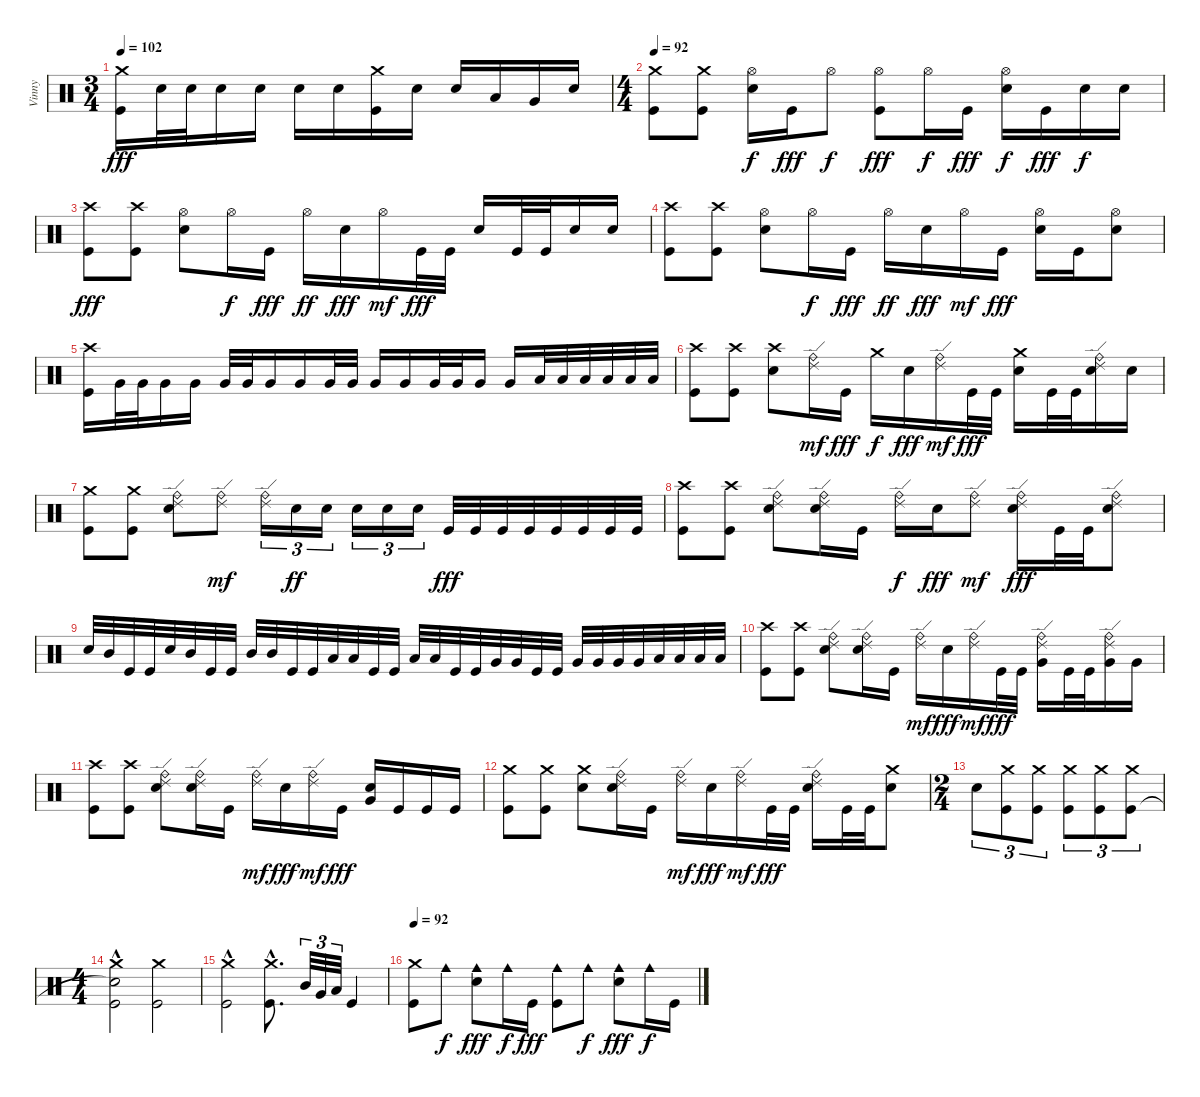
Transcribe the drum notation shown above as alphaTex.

\track ("Vinny" "Vinny") {instrument percussion}
\staff {score}
\articulation defaults
\ts (3 4)
\tempo 102
\clef neutral
\ks c
("Crash medium (hit)" "Kick (hit)").16{dy fff} "Electric Snare (hit)".32 "Electric Snare (hit)".32 "Electric Snare (hit)".16 "Electric Snare (hit)".16 "Electric Snare (hit)".16 "Electric Snare (hit)".16 ("Crash medium (hit)" "Kick (hit)").16 "Electric Snare (hit)".16 "Electric Snare (hit)".16 "Low Tom (hit)".16 "Very Low Tom (hit)".16 "Electric Snare (hit)".16 |
\ts (4 4)
\section ("" "")
\tempo 92
("Crash medium (hit)" "Kick (hit)").8 ("Crash medium (hit)" "Kick (hit)").8 ("Hi-Hat (open)" "Electric Snare (hit)").16{dy f} "Kick (hit)".16{dy fff} "Hi-Hat (open)".8{dy f} ("Hi-Hat (open)" "Kick (hit)").8{dy fff} "Hi-Hat (open)".16{dy f} "Kick (hit)".16{dy fff} ("Hi-Hat (open)" "Electric Snare (hit)").16{dy f} "Kick (hit)".16{dy fff} "Electric Snare (hit)".16{dy f} "Electric Snare (hit)".16 |
("Crash high (hit)" "Kick (hit)").8{dy fff} ("Crash high (hit)" "Kick (hit)").8 ("Hi-Hat (open)" "Electric Snare (hit)").8 "Hi-Hat (open)".16{dy f} "Kick (hit)".16{dy fff} "Hi-Hat (open)".16{dy ff} "Electric Snare (hit)".16{dy fff} "Hi-Hat (open)".16{dy mf} "Kick (hit)".32{dy fff} "Kick (hit)".32 "Electric Snare (hit)".16 "Kick (hit)".32 "Kick (hit)".32 "Electric Snare (hit)".16 "Electric Snare (hit)".16 |
("Crash high (hit)" "Kick (hit)").8 ("Crash high (hit)" "Kick (hit)").8 ("Hi-Hat (open)" "Electric Snare (hit)").8 "Hi-Hat (open)".16{dy f} "Kick (hit)".16{dy fff} "Hi-Hat (open)".16{dy ff} "Electric Snare (hit)".16{dy fff} "Hi-Hat (open)".16{dy mf} "Kick (hit)".16{dy fff} ("Hi-Hat (open)" "Electric Snare (hit)").16 "Kick (hit)".16 ("Hi-Hat (open)" "Electric Snare (hit)").8 |
("Crash high (hit)" "Kick (hit)").16 "Very Low Tom (hit)".32 "Very Low Tom (hit)".32 "Very Low Tom (hit)".16 "Very Low Tom (hit)".16 "Very Low Tom (hit)".32 "Very Low Tom (hit)".32 "Very Low Tom (hit)".16 "Very Low Tom (hit)".16 "Very Low Tom (hit)".32 "Very Low Tom (hit)".32 "Very Low Tom (hit)".16 "Very Low Tom (hit)".16 "Very Low Tom (hit)".32 "Very Low Tom (hit)".32 "Very Low Tom (hit)".16 "Very Low Tom (hit)".16 "Low Floor Tom (hit)".32 "Low Floor Tom (hit)".32 "Low Floor Tom (hit)".32 "Low Floor Tom (hit)".32 "Low Floor Tom (hit)".32 "Low Floor Tom (hit)".32 |
\section ("" "")
("Crash high (hit)" "Kick (hit)").8 ("Crash high (hit)" "Kick (hit)").8 ("Crash high (hit)" "Electric Snare (hit)").8 ("Ride (edge) 2" "Ride (bell)").16{dy mf} "Kick (hit)".16{dy fff} "Crash medium (hit)".16{dy f} "Electric Snare (hit)".16{dy fff} ("Ride (edge) 2" "Ride (bell)").16{dy mf} "Kick (hit)".32{dy fff} "Kick (hit)".32 ("Crash medium (hit)" "Electric Snare (hit)").16 "Kick (hit)".32 "Kick (hit)".32 ("Ride (bell)" "Ride (edge) 2" "Electric Snare (hit)").16 "Electric Snare (hit)".16 |
("Crash medium (hit)" "Kick (hit)").8 ("Crash medium (hit)" "Kick (hit)").8 ("Ride (edge) 2" "Ride (bell)" "Electric Snare (hit)").8 ("Ride (edge) 2" "Ride (bell)").8{dy mf} ("Ride (edge) 2" "Ride (bell)").16{tu (3 2)} "Electric Snare (hit)".16{tu (3 2) dy ff} "Electric Snare (hit)".16{tu (3 2)} "Electric Snare (hit)".16{tu (3 2)} "Electric Snare (hit)".16{tu (3 2)} "Electric Snare (hit)".16{tu (3 2)} "Kick (hit)".32{dy fff} "Kick (hit)".32 "Kick (hit)".32 "Kick (hit)".32 "Kick (hit)".32 "Kick (hit)".32 "Kick (hit)".32 "Kick (hit)".32 |
("Crash high (hit)" "Kick (hit)").8 ("Crash high (hit)" "Kick (hit)").8 ("Ride (edge) 2" "Ride (bell)" "Electric Snare (hit)").8 ("Ride (edge) 2" "Ride (bell)" "Electric Snare (hit)").16 "Kick (hit)".16 ("Ride (edge) 2" "Ride (bell)").16{dy f} "Electric Snare (hit)".16{dy fff} ("Ride (edge) 2" "Ride (bell)").8{dy mf} ("Ride (edge) 2" "Ride (bell)" "Electric Snare (hit)").16{dy fff} "Kick (hit)".32 "Kick (hit)".32 ("Ride (edge) 2" "Ride (bell)" "Electric Snare (hit)").8 |
"Electric Snare (hit)".32 "Mid Tom (hit)".32 "Kick (hit)".32 "Kick (hit)".32 "Electric Snare (hit)".32 "Mid Tom (hit)".32 "Kick (hit)".32 "Kick (hit)".32 "Mid Tom (hit)".32 "Mid Tom (hit)".32 "Kick (hit)".32 "Kick (hit)".32 "Low Tom (hit)".32 "Low Tom (hit)".32 "Kick (hit)".32 "Kick (hit)".32 "Low Tom (hit)".32 "Low Tom (hit)".32 "Kick (hit)".32 "Kick (hit)".32 "Very Low Tom (hit)".32 "Very Low Tom (hit)".32 "Kick (hit)".32 "Kick (hit)".32 "Very Low Tom (hit)".32 "Very Low Tom (hit)".32 "Very Low Tom (hit)".32 "Very Low Tom (hit)".32 "Low Floor Tom (hit)".32 "Low Floor Tom (hit)".32 "Low Floor Tom (hit)".32 "Low Floor Tom (hit)".32 |
("Crash high (hit)" "Kick (hit)").8 ("Crash high (hit)" "Kick (hit)").8 ("Ride (edge) 2" "Ride (bell)" "Electric Snare (hit)").8 ("Ride (edge) 2" "Ride (bell)" "Electric Snare (hit)").16 "Kick (hit)".16 ("Ride (edge) 2" "Ride (bell)").16{dy mf} "Electric Snare (hit)".16{dy fff} ("Ride (edge) 2" "Ride (bell)").16{dy mf} "Kick (hit)".32{dy fff} "Kick (hit)".32 ("Ride (edge) 2" "Ride (bell)" "Very Low Tom (hit)").16 "Kick (hit)".32 "Kick (hit)".32 ("Ride (edge) 2" "Ride (bell)" "Very Low Tom (hit)").16 "Very Low Tom (hit)".16 |
("Crash high (hit)" "Kick (hit)").8 ("Crash high (hit)" "Kick (hit)").8 ("Ride (edge) 2" "Ride (bell)" "Electric Snare (hit)").8 ("Ride (edge) 2" "Ride (bell)" "Electric Snare (hit)").16 "Kick (hit)".16 ("Ride (edge) 2" "Ride (bell)").16{dy mf} "Electric Snare (hit)".16{dy fff} ("Ride (edge) 2" "Ride (bell)").16{dy mf} "Kick (hit)".16{dy fff} ("Electric Snare (hit)" "Very Low Tom (hit)").16 "Kick (hit)".16 "Kick (hit)".16 "Kick (hit)".16 |
("Crash medium (hit)" "Kick (hit)").8 ("Crash medium (hit)" "Kick (hit)").8 ("Crash medium (hit)" "Electric Snare (hit)").8 ("Ride (edge) 2" "Ride (bell)" "Electric Snare (hit)").16 "Kick (hit)".16 ("Ride (edge) 2" "Ride (bell)").16{dy mf} "Electric Snare (hit)".16{dy fff} ("Ride (edge) 2" "Ride (bell)").16{dy mf} "Kick (hit)".32{dy fff} "Kick (hit)".32 ("Ride (edge) 2" "Ride (bell)" "Electric Snare (hit)").16 "Kick (hit)".32 "Kick (hit)".32 ("Crash medium (hit)" "Electric Snare (hit)").8 |
\ts (2 4)
"Electric Snare (hit)".8{tu (3 2)} ("Crash medium (hit)" "Kick (hit)").8{tu (3 2)} ("Crash medium (hit)" "Kick (hit)").8{tu (3 2)} ("Crash medium (hit)" "Kick (hit)").8{tu (3 2)} ("Crash medium (hit)" "Kick (hit)").8{tu (3 2)} ("Crash medium (hit)" "Kick (hit)").8{tu (3 2)} |
\ts (4 4)
("Crash medium (hit)" "Snare (hit)"{hac t} "Kick (hit)").2 ("Crash medium (hit)" "Kick (hit)").2 |
("Crash medium (hit)"{hac} "Kick (hit)").2 ("Crash medium (hit)"{hac} "Kick (hit)").8{d} "Mid Tom (hit)".32{tu (3 2)} "Very Low Tom (hit)".32{tu (3 2)} "Low Floor Tom (hit)".32{tu (3 2)} "Kick (hit)".4 |
\section ("" "")
\tempo 92
("Crash medium (hit)" "Kick (hit)").8 "Cowbell medium (hit)".8{dy f} ("Cowbell medium (hit)" "Electric Snare (hit)").8{dy fff} "Cowbell medium (hit)".16{dy f} "Kick (hit)".16{dy fff} ("Cowbell medium (hit)" "Kick (hit)").8 "Cowbell medium (hit)".8{dy f} ("Cowbell medium (hit)" "Electric Snare (hit)").8{dy fff} "Cowbell medium (hit)".16{dy f} "Kick (hit)".16
